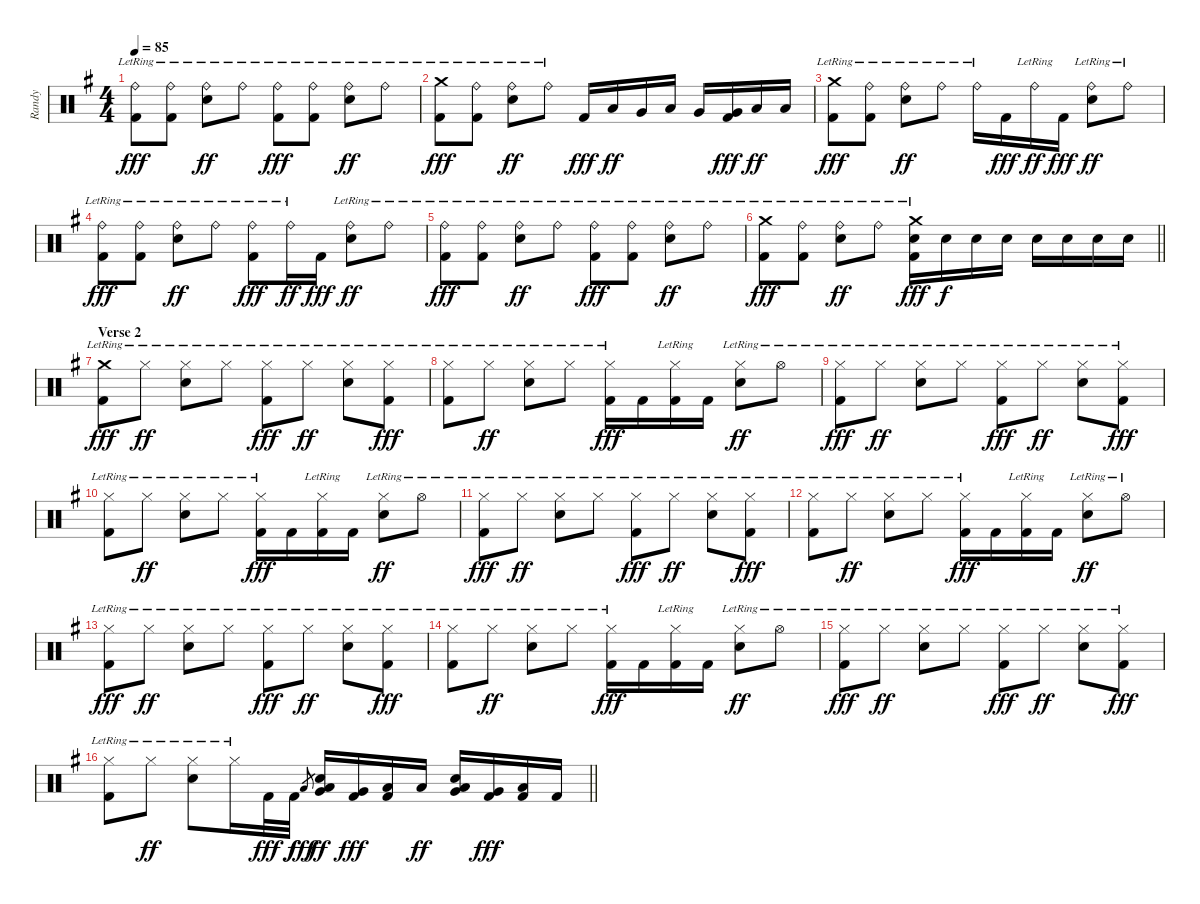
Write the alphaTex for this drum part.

\track ("Randy" "Randy") {instrument percussion}
\staff {score}
\articulation defaults
\ts (4 4)
\tempo 85
\clef neutral
\ks g
("Ride (bell)"{lr} "Kick (hit) 2").8{dy fff} ("Ride (bell)"{lr} "Kick (hit) 2").8 ("Ride (bell)"{lr} "Snare (hit) 2").8{dy ff} "Ride (bell)"{lr}.8 ("Ride (bell)"{lr} "Kick (hit) 2").8{dy fff} ("Ride (bell)"{lr} "Kick (hit) 2").8 ("Ride (bell)"{lr} "Snare (hit) 2").8{dy ff} "Ride (bell)"{lr}.8 |
("Crash medium (hit)"{lr} "Kick (hit) 2").8{dy fff} ("Ride (bell)"{lr} "Kick (hit) 2").8 ("Ride (bell)"{lr} "Snare (hit) 2").8{dy ff} "Ride (bell)"{lr}.8 "Kick (hit) 2".16{dy fff} "Low Tom (hit)".16{dy ff} "Very Low Tom (hit)".16 "Low Tom (hit)".16 "Very Low Tom (hit)".16 ("Very Low Tom (hit)" "Kick (hit) 2").16{dy fff} "Low Floor Tom (hit)".16{dy ff} "Low Floor Tom (hit)".16 |
("Crash medium (hit)"{lr} "Kick (hit) 2").8{dy fff} ("Ride (bell)"{lr} "Kick (hit) 2").8 ("Ride (bell)"{lr} "Snare (hit) 2").8{dy ff} "Ride (bell)"{lr}.8 "Ride (bell)"{lr}.16 "Kick (hit) 2".16{dy fff} "Ride (bell)"{lr}.16{dy ff} "Kick (hit) 2".16{dy fff} ("Ride (bell)"{lr} "Snare (hit) 2").8{dy ff} "Ride (bell)"{lr}.8 |
("Ride (bell)"{lr} "Kick (hit) 2").8{dy fff} ("Ride (bell)"{lr} "Kick (hit) 2").8 ("Ride (bell)"{lr} "Snare (hit) 2").8{dy ff} "Ride (bell)"{lr}.8 ("Ride (bell)"{lr} "Kick (hit) 2").8{dy fff} "Ride (bell)"{lr}.16{dy ff} "Kick (hit) 2".16{dy fff} ("Ride (bell)"{lr} "Snare (hit) 2").8{dy ff} "Ride (bell)"{lr}.8 |
("Ride (bell)"{lr} "Kick (hit) 2").8{dy fff} ("Ride (bell)"{lr} "Kick (hit) 2").8 ("Ride (bell)"{lr} "Snare (hit) 2").8{dy ff} "Ride (bell)"{lr}.8 ("Ride (bell)"{lr} "Kick (hit) 2").8{dy fff} ("Ride (bell)"{lr} "Kick (hit) 2").8 ("Ride (bell)"{lr} "Snare (hit) 2").8{dy ff} "Ride (bell)"{lr}.8 |
\barLineRight lightlight
("Crash medium (hit)"{lr} "Kick (hit) 2").8{dy fff} ("Ride (bell)"{lr} "Kick (hit) 2").8 ("Ride (bell)"{lr} "Snare (hit) 2").8{dy ff} "Ride (bell)"{lr}.8 ("Crash medium (hit)"{lr} "Snare (hit) 2" "Kick (hit) 2").16{dy fff} "Snare (hit) 2".16{dy f} "Snare (hit) 2".16 "Snare (hit) 2".16 "Snare (hit) 2".16 "Snare (hit) 2".16 "Snare (hit) 2".16 "Snare (hit) 2".16 |
\section ("" "Verse 2")
("Crash medium (hit)"{lr} "Kick (hit) 2").8{dy fff} "Hi-Hat (closed)"{lr}.8{dy ff} ("Hi-Hat (closed)"{lr} "Snare (hit) 2").8 "Hi-Hat (closed)"{lr}.8 ("Hi-Hat (closed)"{lr} "Kick (hit) 2").8{dy fff} "Hi-Hat (closed)"{lr}.8{dy ff} ("Hi-Hat (closed)"{lr} "Snare (hit) 2").8 ("Hi-Hat (closed)"{lr} "Kick (hit) 2").8{dy fff} |
("Hi-Hat (closed)"{lr} "Kick (hit) 2").8 "Hi-Hat (closed)"{lr}.8{dy ff} ("Hi-Hat (closed)"{lr} "Snare (hit) 2").8 "Hi-Hat (closed)"{lr}.8 ("Hi-Hat (closed)"{lr} "Kick (hit) 2").16{dy fff} "Kick (hit) 2".16 ("Hi-Hat (closed)"{lr} "Kick (hit) 2").16 "Kick (hit) 2".16 ("Hi-Hat (closed)"{lr} "Snare (hit) 2").8{dy ff} "Hi-Hat (open)"{lr}.8 |
("Hi-Hat (closed)"{lr} "Kick (hit) 2").8{dy fff} "Hi-Hat (closed)"{lr}.8{dy ff} ("Hi-Hat (closed)"{lr} "Snare (hit) 2").8 "Hi-Hat (closed)"{lr}.8 ("Hi-Hat (closed)"{lr} "Kick (hit) 2").8{dy fff} "Hi-Hat (closed)"{lr}.8{dy ff} ("Hi-Hat (closed)"{lr} "Snare (hit) 2").8 ("Hi-Hat (closed)"{lr} "Kick (hit) 2").8{dy fff} |
("Hi-Hat (closed)"{lr} "Kick (hit) 2").8 "Hi-Hat (closed)"{lr}.8{dy ff} ("Hi-Hat (closed)"{lr} "Snare (hit) 2").8 "Hi-Hat (closed)"{lr}.8 ("Hi-Hat (closed)"{lr} "Kick (hit) 2").16{dy fff} "Kick (hit) 2".16 ("Hi-Hat (closed)"{lr} "Kick (hit) 2").16 "Kick (hit) 2".16 ("Hi-Hat (closed)"{lr} "Snare (hit) 2").8{dy ff} "Hi-Hat (open)"{lr}.8 |
("Hi-Hat (closed)"{lr} "Kick (hit) 2").8{dy fff} "Hi-Hat (closed)"{lr}.8{dy ff} ("Hi-Hat (closed)"{lr} "Snare (hit) 2").8 "Hi-Hat (closed)"{lr}.8 ("Hi-Hat (closed)"{lr} "Kick (hit) 2").8{dy fff} "Hi-Hat (closed)"{lr}.8{dy ff} ("Hi-Hat (closed)"{lr} "Snare (hit) 2").8 ("Hi-Hat (closed)"{lr} "Kick (hit) 2").8{dy fff} |
("Hi-Hat (closed)"{lr} "Kick (hit) 2").8 "Hi-Hat (closed)"{lr}.8{dy ff} ("Hi-Hat (closed)"{lr} "Snare (hit) 2").8 "Hi-Hat (closed)"{lr}.8 ("Hi-Hat (closed)"{lr} "Kick (hit) 2").16{dy fff} "Kick (hit) 2".16 ("Hi-Hat (closed)"{lr} "Kick (hit) 2").16 "Kick (hit) 2".16 ("Hi-Hat (closed)"{lr} "Snare (hit) 2").8{dy ff} "Hi-Hat (open)"{lr}.8 |
("Hi-Hat (closed)"{lr} "Kick (hit) 2").8{dy fff} "Hi-Hat (closed)"{lr}.8{dy ff} ("Hi-Hat (closed)"{lr} "Snare (hit) 2").8 "Hi-Hat (closed)"{lr}.8 ("Hi-Hat (closed)"{lr} "Kick (hit) 2").8{dy fff} "Hi-Hat (closed)"{lr}.8{dy ff} ("Hi-Hat (closed)"{lr} "Snare (hit) 2").8 ("Hi-Hat (closed)"{lr} "Kick (hit) 2").8{dy fff} |
("Hi-Hat (closed)"{lr} "Kick (hit) 2").8 "Hi-Hat (closed)"{lr}.8{dy ff} ("Hi-Hat (closed)"{lr} "Snare (hit) 2").8 "Hi-Hat (closed)"{lr}.8 ("Hi-Hat (closed)"{lr} "Kick (hit) 2").16{dy fff} "Kick (hit) 2".16 ("Hi-Hat (closed)"{lr} "Kick (hit) 2").16 "Kick (hit) 2".16 ("Hi-Hat (closed)"{lr} "Snare (hit) 2").8{dy ff} "Hi-Hat (open)"{lr}.8 |
("Hi-Hat (closed)"{lr} "Kick (hit) 2").8{dy fff} "Hi-Hat (closed)"{lr}.8{dy ff} ("Hi-Hat (closed)"{lr} "Snare (hit) 2").8 "Hi-Hat (closed)"{lr}.8 ("Hi-Hat (closed)"{lr} "Kick (hit) 2").8{dy fff} "Hi-Hat (closed)"{lr}.8{dy ff} ("Hi-Hat (closed)"{lr} "Snare (hit) 2").8 ("Hi-Hat (closed)"{lr} "Kick (hit) 2").8{dy fff} |
\barLineRight lightlight
("Hi-Hat (closed)"{lr} "Kick (hit) 2").8 "Hi-Hat (closed)"{lr}.8{dy ff} ("Hi-Hat (closed)"{lr} "Snare (hit) 2").8 "Hi-Hat (closed)"{lr}.16 "Kick (hit) 2".32{dy fff} "Kick (hit) 2".32{dy f} "Low Tom (hit)".8{gr dy fff} ("Very Low Tom (hit)" "Low Floor Tom (hit)" "Snare (hit) 2").16{dy ff} ("Very Low Tom (hit)" "Kick (hit) 2").16{dy fff} ("Low Floor Tom (hit)" "Kick (hit) 2").16 "Low Tom (hit)".16{dy ff} ("Very Low Tom (hit)" "Low Floor Tom (hit)" "Snare (hit) 2").16 ("Very Low Tom (hit)" "Kick (hit) 2").16{dy fff} ("Low Floor Tom (hit)" "Kick (hit) 2").16 "Kick (hit) 2".16
